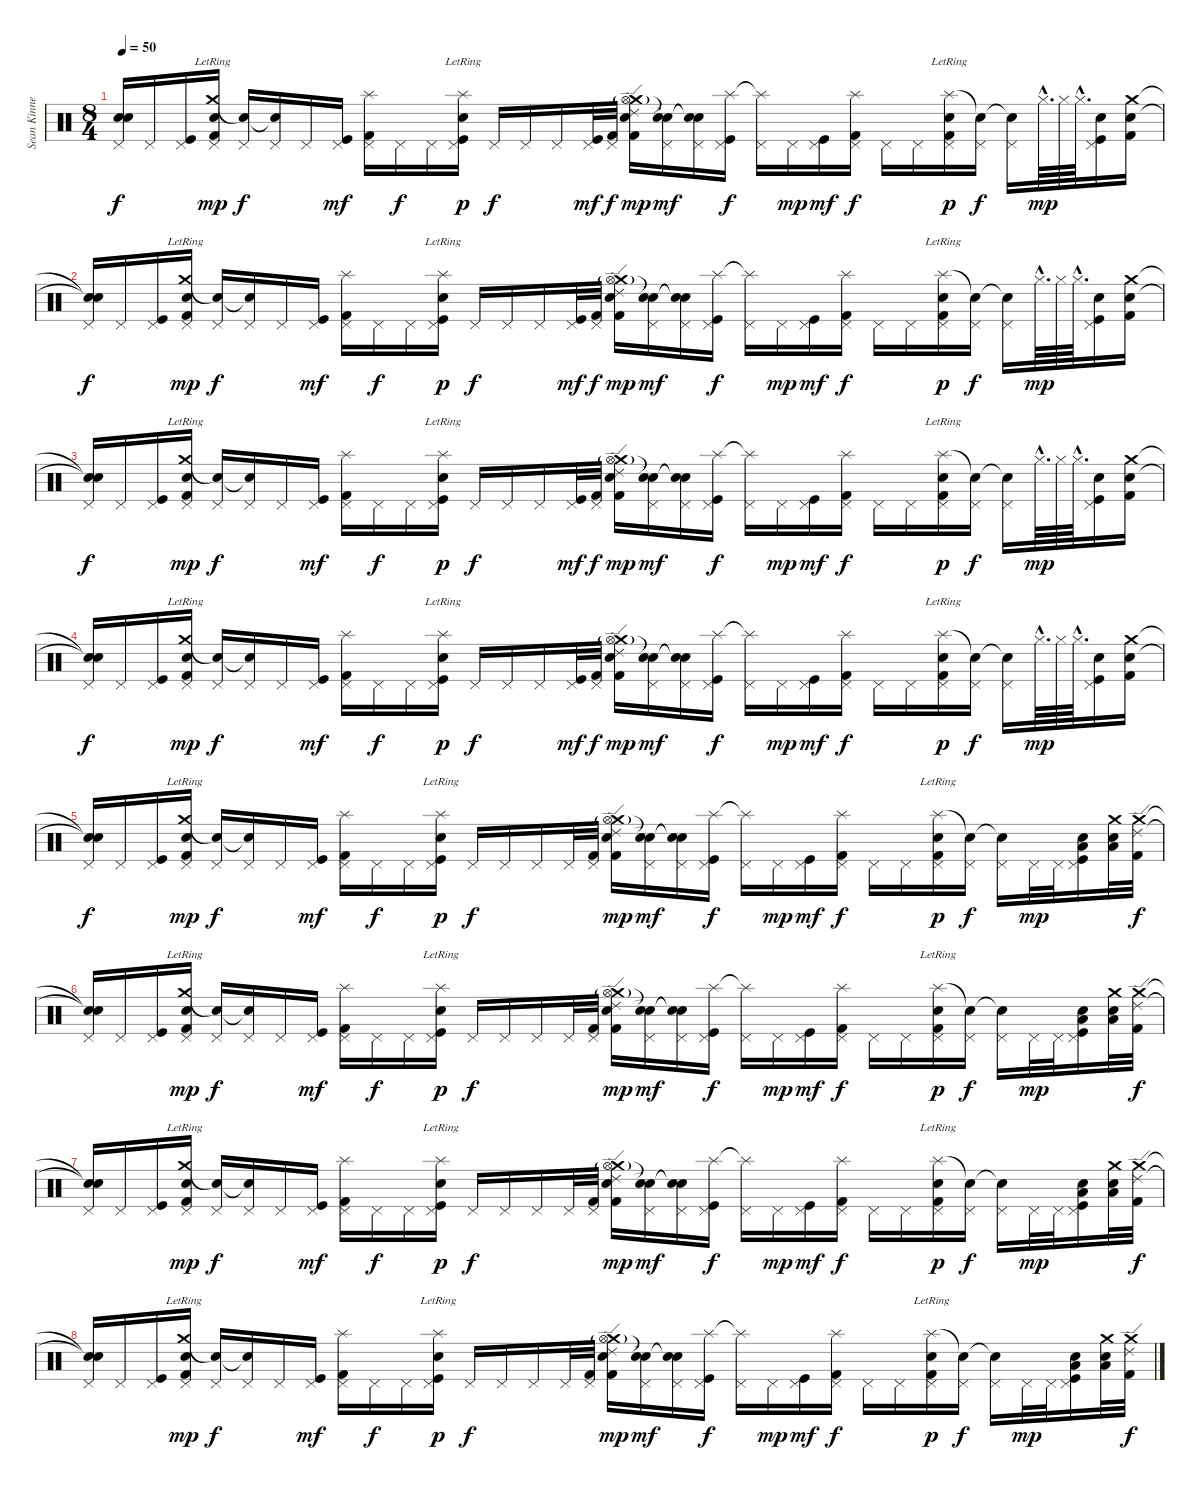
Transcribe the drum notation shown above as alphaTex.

\track ("Sean Kinney" "Sean Kinne") {instrument percussion}
\staff {score}
\articulation defaults
\ts (8 4)
\tempo 50
\clef neutral
\ks c
("Snare (hit)"{t} "Snare (hit)"{t} "Pedal Hi-Hat (hit)").16{dy f} "Pedal Hi-Hat (hit)".16 ("Pedal Hi-Hat (hit)" "Kick (hit)").16 ("Crash medium (hit)"{lr} "Snare (hit) 2" "Pedal Hi-Hat (hit)" "Kick (hit) 2").16{dy mp} ("Snare (hit)"{t} "Pedal Hi-Hat (hit)").16{dy f} ("Snare (hit)"{t} "Pedal Hi-Hat (hit)").16 "Pedal Hi-Hat (hit)".16 ("Pedal Hi-Hat (hit)" "Kick (hit)").16{dy mf} ("Splash (hit)" "Pedal Hi-Hat (hit)" "Kick (hit) 2").16 "Pedal Hi-Hat (hit)".16{dy f} "Pedal Hi-Hat (hit)".16 ("Splash (hit)"{lr} "Snare (hit) 2" "Pedal Hi-Hat (hit)" "Kick (hit)").16{dy p} "Pedal Hi-Hat (hit)".16{dy f} "Pedal Hi-Hat (hit)".16 "Pedal Hi-Hat (hit)".16 ("Pedal Hi-Hat (hit)" "Kick (hit)").32{dy mf} ("Pedal Hi-Hat (hit)" "Kick (hit) 2").32{dy f} ("Crash medium (hit)" "Ride (edge) 2" "Snare (hit) 2" "Hi-Hat (open)"{g} "Kick (hit) 2").16{dy mp} ("Snare (hit)"{t} "Snare (hit)"{t} "Pedal Hi-Hat (hit)").16{dy mf} ("Snare (hit)"{t} "Snare (hit)"{t} "Pedal Hi-Hat (hit)").16 ("Splash (hit)" "Pedal Hi-Hat (hit)" "Kick (hit)").16{dy f} ("Splash (hit)"{t} "Pedal Hi-Hat (hit)").16 "Pedal Hi-Hat (hit)".16{dy mp} ("Pedal Hi-Hat (hit)" "Kick (hit)").16{dy mf} ("Splash (hit)" "Pedal Hi-Hat (hit)" "Kick (hit) 2").16{dy f} "Pedal Hi-Hat (hit)".16 "Pedal Hi-Hat (hit)".16 ("Splash (hit)"{lr} "Snare (hit) 2" "Pedal Hi-Hat (hit)" "Kick (hit) 2").16{dy p} ("Snare (hit)"{t} "Pedal Hi-Hat (hit)").16{dy f} ("Snare (hit)"{t} "Pedal Hi-Hat (hit)").16 "Hi-Hat (closed)"{hac}.64{d dy mp} "Hi-Hat (closed)".64 "Hi-Hat (closed)"{hac}.64{d} ("Snare (hit) 2" "Pedal Hi-Hat (hit)" "Kick (hit)").16 ("Crash medium (hit)" "Snare (hit) 2" "Kick (hit) 2").16 |
("Snare (hit)"{t} "Snare (hit)"{t} "Pedal Hi-Hat (hit)").16{dy f} "Pedal Hi-Hat (hit)".16 ("Pedal Hi-Hat (hit)" "Kick (hit)").16 ("Crash medium (hit)"{lr} "Snare (hit) 2" "Pedal Hi-Hat (hit)" "Kick (hit) 2").16{dy mp} ("Snare (hit)"{t} "Pedal Hi-Hat (hit)").16{dy f} ("Snare (hit)"{t} "Pedal Hi-Hat (hit)").16 "Pedal Hi-Hat (hit)".16 ("Pedal Hi-Hat (hit)" "Kick (hit)").16{dy mf} ("Splash (hit)" "Pedal Hi-Hat (hit)" "Kick (hit) 2").16 "Pedal Hi-Hat (hit)".16{dy f} "Pedal Hi-Hat (hit)".16 ("Splash (hit)"{lr} "Snare (hit) 2" "Pedal Hi-Hat (hit)" "Kick (hit)").16{dy p} "Pedal Hi-Hat (hit)".16{dy f} "Pedal Hi-Hat (hit)".16 "Pedal Hi-Hat (hit)".16 ("Pedal Hi-Hat (hit)" "Kick (hit)").32{dy mf} ("Pedal Hi-Hat (hit)" "Kick (hit) 2").32{dy f} ("Crash medium (hit)" "Ride (edge) 2" "Snare (hit) 2" "Hi-Hat (open)"{g} "Kick (hit) 2").16{dy mp} ("Snare (hit)"{t} "Snare (hit)"{t} "Pedal Hi-Hat (hit)").16{dy mf} ("Snare (hit)"{t} "Snare (hit)"{t} "Pedal Hi-Hat (hit)").16 ("Splash (hit)" "Pedal Hi-Hat (hit)" "Kick (hit)").16{dy f} ("Splash (hit)"{t} "Pedal Hi-Hat (hit)").16 "Pedal Hi-Hat (hit)".16{dy mp} ("Pedal Hi-Hat (hit)" "Kick (hit)").16{dy mf} ("Splash (hit)" "Pedal Hi-Hat (hit)" "Kick (hit) 2").16{dy f} "Pedal Hi-Hat (hit)".16 "Pedal Hi-Hat (hit)".16 ("Splash (hit)"{lr} "Snare (hit) 2" "Pedal Hi-Hat (hit)" "Kick (hit) 2").16{dy p} ("Snare (hit)"{t} "Pedal Hi-Hat (hit)").16{dy f} ("Snare (hit)"{t} "Pedal Hi-Hat (hit)").16 "Hi-Hat (closed)"{hac}.64{d dy mp} "Hi-Hat (closed)".64 "Hi-Hat (closed)"{hac}.64{d} ("Snare (hit) 2" "Pedal Hi-Hat (hit)" "Kick (hit)").16 ("Crash medium (hit)" "Snare (hit) 2" "Kick (hit) 2").16 |
("Snare (hit)"{t} "Snare (hit)"{t} "Pedal Hi-Hat (hit)").16{dy f} "Pedal Hi-Hat (hit)".16 ("Pedal Hi-Hat (hit)" "Kick (hit)").16 ("Crash medium (hit)"{lr} "Snare (hit) 2" "Pedal Hi-Hat (hit)" "Kick (hit) 2").16{dy mp} ("Snare (hit)"{t} "Pedal Hi-Hat (hit)").16{dy f} ("Snare (hit)"{t} "Pedal Hi-Hat (hit)").16 "Pedal Hi-Hat (hit)".16 ("Pedal Hi-Hat (hit)" "Kick (hit)").16{dy mf} ("Splash (hit)" "Pedal Hi-Hat (hit)" "Kick (hit) 2").16 "Pedal Hi-Hat (hit)".16{dy f} "Pedal Hi-Hat (hit)".16 ("Splash (hit)"{lr} "Snare (hit) 2" "Pedal Hi-Hat (hit)" "Kick (hit)").16{dy p} "Pedal Hi-Hat (hit)".16{dy f} "Pedal Hi-Hat (hit)".16 "Pedal Hi-Hat (hit)".16 ("Pedal Hi-Hat (hit)" "Kick (hit)").32{dy mf} ("Pedal Hi-Hat (hit)" "Kick (hit) 2").32{dy f} ("Crash medium (hit)" "Ride (edge) 2" "Snare (hit) 2" "Hi-Hat (open)"{g} "Kick (hit) 2").16{dy mp} ("Snare (hit)"{t} "Snare (hit)"{t} "Pedal Hi-Hat (hit)").16{dy mf} ("Snare (hit)"{t} "Snare (hit)"{t} "Pedal Hi-Hat (hit)").16 ("Splash (hit)" "Pedal Hi-Hat (hit)" "Kick (hit)").16{dy f} ("Splash (hit)"{t} "Pedal Hi-Hat (hit)").16 "Pedal Hi-Hat (hit)".16{dy mp} ("Pedal Hi-Hat (hit)" "Kick (hit)").16{dy mf} ("Splash (hit)" "Pedal Hi-Hat (hit)" "Kick (hit) 2").16{dy f} "Pedal Hi-Hat (hit)".16 "Pedal Hi-Hat (hit)".16 ("Splash (hit)"{lr} "Snare (hit) 2" "Pedal Hi-Hat (hit)" "Kick (hit) 2").16{dy p} ("Snare (hit)"{t} "Pedal Hi-Hat (hit)").16{dy f} ("Snare (hit)"{t} "Pedal Hi-Hat (hit)").16 "Hi-Hat (closed)"{hac}.64{d dy mp} "Hi-Hat (closed)".64 "Hi-Hat (closed)"{hac}.64{d} ("Snare (hit) 2" "Pedal Hi-Hat (hit)" "Kick (hit)").16 ("Crash medium (hit)" "Snare (hit) 2" "Kick (hit) 2").16 |
("Snare (hit)"{t} "Snare (hit)"{t} "Pedal Hi-Hat (hit)").16{dy f} "Pedal Hi-Hat (hit)".16 ("Pedal Hi-Hat (hit)" "Kick (hit)").16 ("Crash medium (hit)"{lr} "Snare (hit) 2" "Pedal Hi-Hat (hit)" "Kick (hit) 2").16{dy mp} ("Snare (hit)"{t} "Pedal Hi-Hat (hit)").16{dy f} ("Snare (hit)"{t} "Pedal Hi-Hat (hit)").16 "Pedal Hi-Hat (hit)".16 ("Pedal Hi-Hat (hit)" "Kick (hit)").16{dy mf} ("Splash (hit)" "Pedal Hi-Hat (hit)" "Kick (hit) 2").16 "Pedal Hi-Hat (hit)".16{dy f} "Pedal Hi-Hat (hit)".16 ("Splash (hit)"{lr} "Snare (hit) 2" "Pedal Hi-Hat (hit)" "Kick (hit)").16{dy p} "Pedal Hi-Hat (hit)".16{dy f} "Pedal Hi-Hat (hit)".16 "Pedal Hi-Hat (hit)".16 ("Pedal Hi-Hat (hit)" "Kick (hit)").32{dy mf} ("Pedal Hi-Hat (hit)" "Kick (hit) 2").32{dy f} ("Crash medium (hit)" "Ride (edge) 2" "Snare (hit) 2" "Hi-Hat (open)"{g} "Kick (hit) 2").16{dy mp} ("Snare (hit)"{t} "Snare (hit)"{t} "Pedal Hi-Hat (hit)").16{dy mf} ("Snare (hit)"{t} "Snare (hit)"{t} "Pedal Hi-Hat (hit)").16 ("Splash (hit)" "Pedal Hi-Hat (hit)" "Kick (hit)").16{dy f} ("Splash (hit)"{t} "Pedal Hi-Hat (hit)").16 "Pedal Hi-Hat (hit)".16{dy mp} ("Pedal Hi-Hat (hit)" "Kick (hit)").16{dy mf} ("Splash (hit)" "Pedal Hi-Hat (hit)" "Kick (hit) 2").16{dy f} "Pedal Hi-Hat (hit)".16 "Pedal Hi-Hat (hit)".16 ("Splash (hit)"{lr} "Snare (hit) 2" "Pedal Hi-Hat (hit)" "Kick (hit) 2").16{dy p} ("Snare (hit)"{t} "Pedal Hi-Hat (hit)").16{dy f} ("Snare (hit)"{t} "Pedal Hi-Hat (hit)").16 "Hi-Hat (closed)"{hac}.64{d dy mp} "Hi-Hat (closed)".64 "Hi-Hat (closed)"{hac}.64{d} ("Snare (hit) 2" "Pedal Hi-Hat (hit)" "Kick (hit)").16 ("Crash medium (hit)" "Snare (hit) 2" "Kick (hit) 2").16 |
("Snare (hit)"{t} "Snare (hit)"{t} "Pedal Hi-Hat (hit)").16{dy f} "Pedal Hi-Hat (hit)".16 ("Pedal Hi-Hat (hit)" "Kick (hit)").16 ("Crash medium (hit)"{lr} "Snare (hit) 2" "Pedal Hi-Hat (hit)" "Kick (hit) 2").16{dy mp} ("Snare (hit)"{t} "Pedal Hi-Hat (hit)").16{dy f} ("Snare (hit)"{t} "Pedal Hi-Hat (hit)").16 "Pedal Hi-Hat (hit)".16 ("Pedal Hi-Hat (hit)" "Kick (hit)").16{dy mf} ("Splash (hit)" "Pedal Hi-Hat (hit)" "Kick (hit) 2").16 "Pedal Hi-Hat (hit)".16{dy f} "Pedal Hi-Hat (hit)".16 ("Splash (hit)"{lr} "Snare (hit) 2" "Pedal Hi-Hat (hit)" "Kick (hit)").16{dy p} "Pedal Hi-Hat (hit)".16{dy f} "Pedal Hi-Hat (hit)".16 "Pedal Hi-Hat (hit)".16 "Pedal Hi-Hat (hit)".32 ("Pedal Hi-Hat (hit)" "Kick (hit) 2").32 ("Crash medium (hit)" "Ride (edge) 2" "Snare (hit) 2" "Hi-Hat (open)"{g} "Kick (hit) 2").16{dy mp} ("Snare (hit)"{t} "Snare (hit)"{t} "Pedal Hi-Hat (hit)").16{dy mf} ("Snare (hit)"{t} "Snare (hit)"{t} "Pedal Hi-Hat (hit)").16 ("Splash (hit)" "Pedal Hi-Hat (hit)" "Kick (hit)").16{dy f} ("Splash (hit)"{t} "Pedal Hi-Hat (hit)").16 "Pedal Hi-Hat (hit)".16{dy mp} ("Pedal Hi-Hat (hit)" "Kick (hit)").16{dy mf} ("Splash (hit)" "Pedal Hi-Hat (hit)" "Kick (hit) 2").16{dy f} "Pedal Hi-Hat (hit)".16 "Pedal Hi-Hat (hit)".16 ("Splash (hit)"{lr} "Snare (hit) 2" "Pedal Hi-Hat (hit)" "Kick (hit) 2").16{dy p} ("Snare (hit)"{t} "Pedal Hi-Hat (hit)").16{dy f} ("Snare (hit)"{t} "Pedal Hi-Hat (hit)").16 "Pedal Hi-Hat (hit)".32{dy mp} "Pedal Hi-Hat (hit)".32 ("Low Tom (hit)" "Snare (hit) 2" "Pedal Hi-Hat (hit)" "Kick (hit)").16 ("Crash medium (hit)" "Low Floor Tom (hit)" "Snare (hit) 2").32 ("Crash medium (hit)" "Ride (edge) 2" "Kick (hit) 2").32{dy f} |
("Snare (hit)"{t} "Snare (hit)"{t} "Pedal Hi-Hat (hit)").16 "Pedal Hi-Hat (hit)".16 ("Pedal Hi-Hat (hit)" "Kick (hit)").16 ("Crash medium (hit)"{lr} "Snare (hit) 2" "Pedal Hi-Hat (hit)" "Kick (hit) 2").16{dy mp} ("Snare (hit)"{t} "Pedal Hi-Hat (hit)").16{dy f} ("Snare (hit)"{t} "Pedal Hi-Hat (hit)").16 "Pedal Hi-Hat (hit)".16 ("Pedal Hi-Hat (hit)" "Kick (hit)").16{dy mf} ("Splash (hit)" "Pedal Hi-Hat (hit)" "Kick (hit) 2").16 "Pedal Hi-Hat (hit)".16{dy f} "Pedal Hi-Hat (hit)".16 ("Splash (hit)"{lr} "Snare (hit) 2" "Pedal Hi-Hat (hit)" "Kick (hit)").16{dy p} "Pedal Hi-Hat (hit)".16{dy f} "Pedal Hi-Hat (hit)".16 "Pedal Hi-Hat (hit)".16 "Pedal Hi-Hat (hit)".32 ("Pedal Hi-Hat (hit)" "Kick (hit) 2").32 ("Crash medium (hit)" "Ride (edge) 2" "Snare (hit) 2" "Hi-Hat (open)"{g} "Kick (hit) 2").16{dy mp} ("Snare (hit)"{t} "Snare (hit)"{t} "Pedal Hi-Hat (hit)").16{dy mf} ("Snare (hit)"{t} "Snare (hit)"{t} "Pedal Hi-Hat (hit)").16 ("Splash (hit)" "Pedal Hi-Hat (hit)" "Kick (hit)").16{dy f} ("Splash (hit)"{t} "Pedal Hi-Hat (hit)").16 "Pedal Hi-Hat (hit)".16{dy mp} ("Pedal Hi-Hat (hit)" "Kick (hit)").16{dy mf} ("Splash (hit)" "Pedal Hi-Hat (hit)" "Kick (hit) 2").16{dy f} "Pedal Hi-Hat (hit)".16 "Pedal Hi-Hat (hit)".16 ("Splash (hit)"{lr} "Snare (hit) 2" "Pedal Hi-Hat (hit)" "Kick (hit) 2").16{dy p} ("Snare (hit)"{t} "Pedal Hi-Hat (hit)").16{dy f} ("Snare (hit)"{t} "Pedal Hi-Hat (hit)").16 "Pedal Hi-Hat (hit)".32{dy mp} "Pedal Hi-Hat (hit)".32 ("Low Tom (hit)" "Snare (hit) 2" "Pedal Hi-Hat (hit)" "Kick (hit)").16 ("Crash medium (hit)" "Low Floor Tom (hit)" "Snare (hit) 2").32 ("Crash medium (hit)" "Ride (edge) 2" "Kick (hit) 2").32{dy f} |
("Snare (hit)"{t} "Snare (hit)"{t} "Pedal Hi-Hat (hit)").16 "Pedal Hi-Hat (hit)".16 ("Pedal Hi-Hat (hit)" "Kick (hit)").16 ("Crash medium (hit)"{lr} "Snare (hit) 2" "Pedal Hi-Hat (hit)" "Kick (hit) 2").16{dy mp} ("Snare (hit)"{t} "Pedal Hi-Hat (hit)").16{dy f} ("Snare (hit)"{t} "Pedal Hi-Hat (hit)").16 "Pedal Hi-Hat (hit)".16 ("Pedal Hi-Hat (hit)" "Kick (hit)").16{dy mf} ("Splash (hit)" "Pedal Hi-Hat (hit)" "Kick (hit) 2").16 "Pedal Hi-Hat (hit)".16{dy f} "Pedal Hi-Hat (hit)".16 ("Splash (hit)"{lr} "Snare (hit) 2" "Pedal Hi-Hat (hit)" "Kick (hit)").16{dy p} "Pedal Hi-Hat (hit)".16{dy f} "Pedal Hi-Hat (hit)".16 "Pedal Hi-Hat (hit)".16 "Pedal Hi-Hat (hit)".32 ("Pedal Hi-Hat (hit)" "Kick (hit) 2").32 ("Crash medium (hit)" "Ride (edge) 2" "Snare (hit) 2" "Hi-Hat (open)"{g} "Kick (hit) 2").16{dy mp} ("Snare (hit)"{t} "Snare (hit)"{t} "Pedal Hi-Hat (hit)").16{dy mf} ("Snare (hit)"{t} "Snare (hit)"{t} "Pedal Hi-Hat (hit)").16 ("Splash (hit)" "Pedal Hi-Hat (hit)" "Kick (hit)").16{dy f} ("Splash (hit)"{t} "Pedal Hi-Hat (hit)").16 "Pedal Hi-Hat (hit)".16{dy mp} ("Pedal Hi-Hat (hit)" "Kick (hit)").16{dy mf} ("Splash (hit)" "Pedal Hi-Hat (hit)" "Kick (hit) 2").16{dy f} "Pedal Hi-Hat (hit)".16 "Pedal Hi-Hat (hit)".16 ("Splash (hit)"{lr} "Snare (hit) 2" "Pedal Hi-Hat (hit)" "Kick (hit) 2").16{dy p} ("Snare (hit)"{t} "Pedal Hi-Hat (hit)").16{dy f} ("Snare (hit)"{t} "Pedal Hi-Hat (hit)").16 "Pedal Hi-Hat (hit)".32{dy mp} "Pedal Hi-Hat (hit)".32 ("Low Tom (hit)" "Snare (hit) 2" "Pedal Hi-Hat (hit)" "Kick (hit)").16 ("Crash medium (hit)" "Low Floor Tom (hit)" "Snare (hit) 2").32 ("Crash medium (hit)" "Ride (edge) 2" "Kick (hit) 2").32{dy f} |
("Snare (hit)"{t} "Snare (hit)"{t} "Pedal Hi-Hat (hit)").16 "Pedal Hi-Hat (hit)".16 ("Pedal Hi-Hat (hit)" "Kick (hit)").16 ("Crash medium (hit)"{lr} "Snare (hit) 2" "Pedal Hi-Hat (hit)" "Kick (hit) 2").16{dy mp} ("Snare (hit)"{t} "Pedal Hi-Hat (hit)").16{dy f} ("Snare (hit)"{t} "Pedal Hi-Hat (hit)").16 "Pedal Hi-Hat (hit)".16 ("Pedal Hi-Hat (hit)" "Kick (hit)").16{dy mf} ("Splash (hit)" "Pedal Hi-Hat (hit)" "Kick (hit) 2").16 "Pedal Hi-Hat (hit)".16{dy f} "Pedal Hi-Hat (hit)".16 ("Splash (hit)"{lr} "Snare (hit) 2" "Pedal Hi-Hat (hit)" "Kick (hit)").16{dy p} "Pedal Hi-Hat (hit)".16{dy f} "Pedal Hi-Hat (hit)".16 "Pedal Hi-Hat (hit)".16 "Pedal Hi-Hat (hit)".32 ("Pedal Hi-Hat (hit)" "Kick (hit) 2").32 ("Crash medium (hit)" "Ride (edge) 2" "Snare (hit) 2" "Hi-Hat (open)"{g} "Kick (hit) 2").16{dy mp} ("Snare (hit)"{t} "Snare (hit)"{t} "Pedal Hi-Hat (hit)").16{dy mf} ("Snare (hit)"{t} "Snare (hit)"{t} "Pedal Hi-Hat (hit)").16 ("Splash (hit)" "Pedal Hi-Hat (hit)" "Kick (hit)").16{dy f} ("Splash (hit)"{t} "Pedal Hi-Hat (hit)").16 "Pedal Hi-Hat (hit)".16{dy mp} ("Pedal Hi-Hat (hit)" "Kick (hit)").16{dy mf} ("Splash (hit)" "Pedal Hi-Hat (hit)" "Kick (hit) 2").16{dy f} "Pedal Hi-Hat (hit)".16 "Pedal Hi-Hat (hit)".16 ("Splash (hit)"{lr} "Snare (hit) 2" "Pedal Hi-Hat (hit)" "Kick (hit) 2").16{dy p} ("Snare (hit)"{t} "Pedal Hi-Hat (hit)").16{dy f} ("Snare (hit)"{t} "Pedal Hi-Hat (hit)").16 "Pedal Hi-Hat (hit)".32{dy mp} "Pedal Hi-Hat (hit)".32 ("Low Tom (hit)" "Snare (hit) 2" "Pedal Hi-Hat (hit)" "Kick (hit)").16 ("Crash medium (hit)" "Low Floor Tom (hit)" "Snare (hit) 2").32 ("Crash medium (hit)" "Ride (edge) 2" "Kick (hit) 2").32{dy f}
